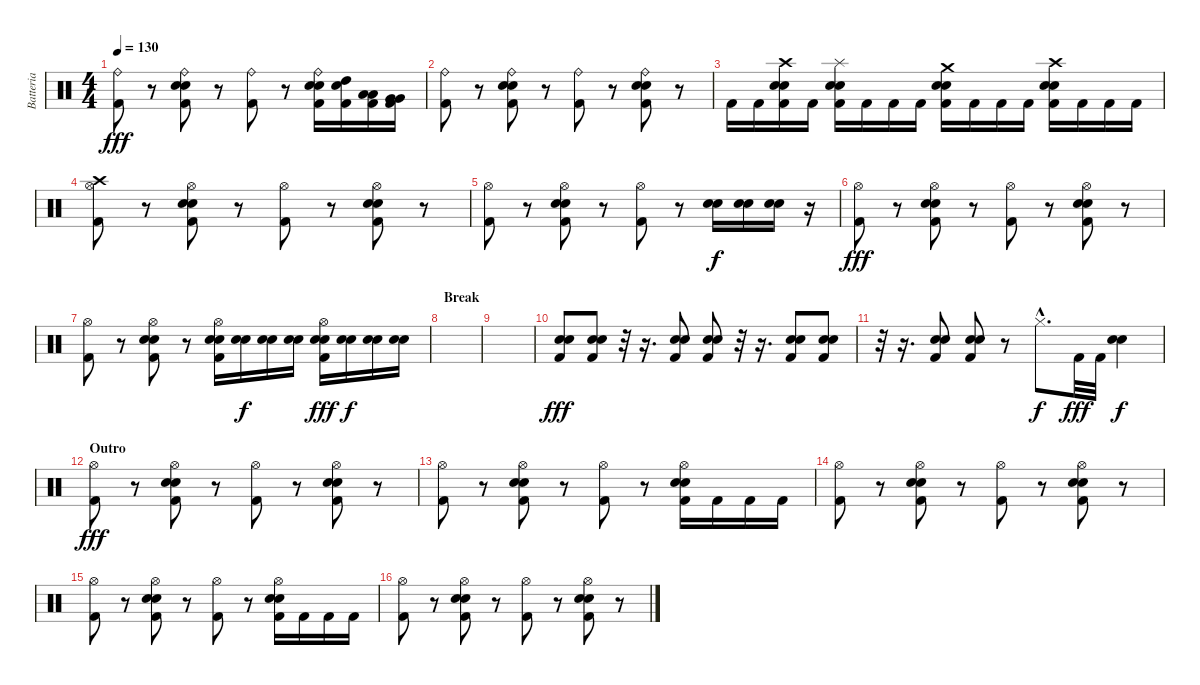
\track ("Batteria" "Batteria") {instrument percussion}
\staff {score}
\articulation defaults
\ts (4 4)
\tempo 130
\clef neutral
\ks c
("Ride (bell)" "Kick (hit) 2").8{dy fff} r.8 ("Ride (bell)" "Electric Snare (hit)" "Snare (hit) 2" "Kick (hit) 2").8 r.8 ("Ride (bell)" "Kick (hit) 2").8 r.8 ("Ride (bell)" "Electric Snare (hit)" "Snare (hit) 2" "Kick (hit) 2").16 ("Electric Snare (hit)" "High Tom (hit)" "Kick (hit) 2").16 ("Low Tom (hit)" "Low Tom (hit)" "Kick (hit) 2").16 ("Very Low Tom (hit)" "Very Low Tom (hit)" "Kick (hit) 2").16 |
("Ride (bell)" "Kick (hit) 2").8 r.8 ("Ride (bell)" "Electric Snare (hit)" "Snare (hit) 2" "Kick (hit) 2").8 r.8 ("Ride (bell)" "Kick (hit) 2").8 r.8 ("Ride (bell)" "Electric Snare (hit)" "Snare (hit) 2" "Kick (hit) 2").8 r.8 |
"Kick (hit) 2".16 "Kick (hit) 2".16 ("Crash high (hit)" "Electric Snare (hit)" "Snare (hit) 2" "Kick (hit) 2").16 "Kick (hit) 2".16 ("Splash (hit)" "Electric Snare (hit)" "Snare (hit) 2" "Kick (hit) 2").16 "Kick (hit) 2".16 "Kick (hit) 2".16 "Kick (hit) 2".16 ("Crash medium (hit)" "Electric Snare (hit)" "Snare (hit) 2" "Kick (hit) 2").16 "Kick (hit) 2".16 "Kick (hit) 2".16 "Kick (hit) 2".16 ("Crash high (hit)" "Electric Snare (hit)" "Snare (hit) 2" "Kick (hit) 2").16 "Kick (hit) 2".16 "Kick (hit) 2".16 "Kick (hit) 2".16 |
("Crash high (hit)" "Hi-Hat (open)" "Kick (hit) 2").8 r.8 ("Hi-Hat (open)" "Electric Snare (hit)" "Snare (hit) 2" "Kick (hit) 2").8 r.8 ("Hi-Hat (open)" "Kick (hit) 2").8 r.8 ("Hi-Hat (open)" "Electric Snare (hit)" "Snare (hit) 2" "Kick (hit) 2").8 r.8 |
("Hi-Hat (open)" "Kick (hit) 2").8 r.8 ("Hi-Hat (open)" "Electric Snare (hit)" "Snare (hit) 2" "Kick (hit) 2").8 r.8 ("Hi-Hat (open)" "Kick (hit) 2").8 r.8 ("Electric Snare (hit)" "Snare (hit) 2").16{dy f} ("Electric Snare (hit)" "Snare (hit) 2").16 ("Electric Snare (hit)" "Snare (hit) 2").16 r.16 |
("Hi-Hat (open)" "Kick (hit) 2").8{dy fff} r.8 ("Hi-Hat (open)" "Electric Snare (hit)" "Snare (hit) 2" "Kick (hit) 2").8 r.8 ("Hi-Hat (open)" "Kick (hit) 2").8 r.8 ("Hi-Hat (open)" "Electric Snare (hit)" "Snare (hit) 2" "Kick (hit) 2").8 r.8 |
("Hi-Hat (open)" "Kick (hit) 2").8 r.8 ("Hi-Hat (open)" "Electric Snare (hit)" "Snare (hit) 2" "Kick (hit) 2").8 r.8 ("Hi-Hat (open)" "Electric Snare (hit)" "Snare (hit) 2" "Kick (hit) 2").16 ("Electric Snare (hit)" "Snare (hit) 2").16{dy f} ("Electric Snare (hit)" "Snare (hit) 2").16 ("Electric Snare (hit)" "Snare (hit) 2").16 ("Hi-Hat (open)" "Electric Snare (hit)" "Snare (hit) 2" "Kick (hit) 2").16{dy fff} ("Electric Snare (hit)" "Snare (hit) 2").16{dy f} ("Electric Snare (hit)" "Snare (hit) 2").16 ("Electric Snare (hit)" "Snare (hit) 2").16 |
\section ("" "Break")
|
|
("Electric Snare (hit)" "Snare (hit) 2" "Kick (hit) 2").8{dy fff} ("Electric Snare (hit)" "Snare (hit) 2" "Kick (hit) 2").8 r.32 r.16{d} ("Electric Snare (hit)" "Snare (hit) 2" "Kick (hit) 2").8 ("Electric Snare (hit)" "Snare (hit) 2" "Kick (hit) 2").8 r.32 r.16{d} ("Electric Snare (hit)" "Snare (hit) 2" "Kick (hit) 2").8 ("Electric Snare (hit)" "Snare (hit) 2" "Kick (hit) 2").8 |
r.32 r.16{d} ("Electric Snare (hit)" "Snare (hit) 2" "Kick (hit) 2").8 ("Electric Snare (hit)" "Snare (hit) 2" "Kick (hit) 2").8 r.8 "Hi-Hat (closed)"{hac}.8{d dy f} "Kick (hit) 2".32{dy fff} "Kick (hit) 2".32 ("Snare (hit) 2" "Electric Snare (hit)").4{dy f} |
\section ("" "Outro")
("Hi-Hat (open)" "Kick (hit) 2").8{dy fff} r.8 ("Hi-Hat (open)" "Electric Snare (hit)" "Snare (hit) 2" "Kick (hit) 2").8 r.8 ("Hi-Hat (open)" "Kick (hit) 2").8 r.8 ("Hi-Hat (open)" "Electric Snare (hit)" "Snare (hit) 2" "Kick (hit) 2").8 r.8 |
("Hi-Hat (open)" "Kick (hit) 2").8 r.8 ("Hi-Hat (open)" "Electric Snare (hit)" "Snare (hit) 2" "Kick (hit) 2").8 r.8 ("Hi-Hat (open)" "Kick (hit) 2").8 r.8 ("Hi-Hat (open)" "Electric Snare (hit)" "Snare (hit) 2" "Kick (hit) 2").16 "Kick (hit) 2".16 "Kick (hit) 2".16 "Kick (hit) 2".16 |
("Hi-Hat (open)" "Kick (hit) 2").8 r.8 ("Hi-Hat (open)" "Electric Snare (hit)" "Snare (hit) 2" "Kick (hit) 2").8 r.8 ("Hi-Hat (open)" "Kick (hit) 2").8 r.8 ("Hi-Hat (open)" "Electric Snare (hit)" "Snare (hit) 2" "Kick (hit) 2").8 r.8 |
("Hi-Hat (open)" "Kick (hit) 2").8 r.8 ("Hi-Hat (open)" "Electric Snare (hit)" "Snare (hit) 2" "Kick (hit) 2").8 r.8 ("Hi-Hat (open)" "Kick (hit) 2").8 r.8 ("Hi-Hat (open)" "Electric Snare (hit)" "Snare (hit) 2" "Kick (hit) 2").16 "Kick (hit) 2".16 "Kick (hit) 2".16 "Kick (hit) 2".16 |
("Hi-Hat (open)" "Kick (hit) 2").8 r.8 ("Hi-Hat (open)" "Electric Snare (hit)" "Snare (hit) 2" "Kick (hit) 2").8 r.8 ("Hi-Hat (open)" "Kick (hit) 2").8 r.8 ("Hi-Hat (open)" "Electric Snare (hit)" "Snare (hit) 2" "Kick (hit) 2").8 r.8
